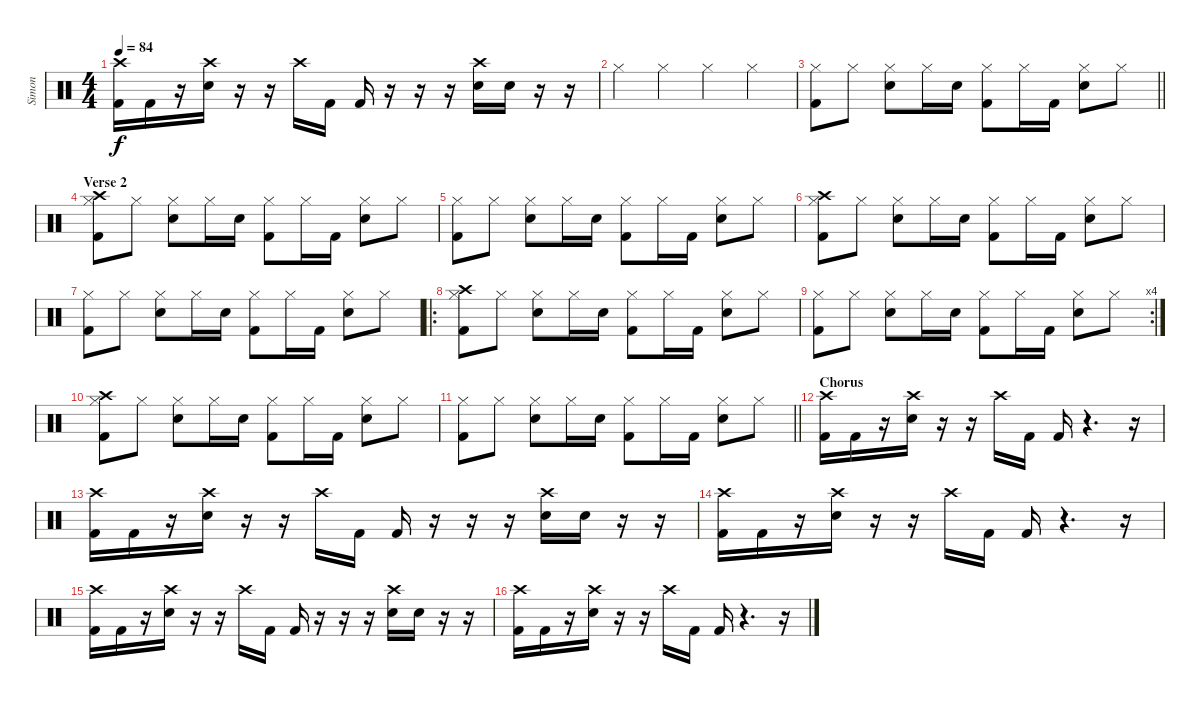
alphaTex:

\track ("Simon" "Simon") {instrument percussion}
\staff {score}
\articulation defaults
\ts (4 4)
\tempo 84
\clef neutral
\ks c
("Kick (hit) 2" "Crash high (hit)").16{dy f} "Kick (hit) 2".16 r.16 ("Snare (hit) 2" "Crash high (hit)").16 r.16 r.16 "Crash high (hit)".16 "Kick (hit) 2".16 "Kick (hit) 2".16 r.16 r.16 r.16 ("Snare (hit) 2" "Crash high (hit)").16 "Snare (hit) 2".16 r.16 r.16 |
"Hi-Hat (closed)".4 "Hi-Hat (closed)".4 "Hi-Hat (closed)".4 "Hi-Hat (closed)".4 |
\barLineRight lightlight
("Hi-Hat (closed)" "Kick (hit) 2").8 "Hi-Hat (closed)".8 ("Hi-Hat (closed)" "Snare (hit) 2").8 "Hi-Hat (closed)".16 "Snare (hit) 2".16 ("Hi-Hat (closed)" "Kick (hit) 2").8 "Hi-Hat (closed)".16 "Kick (hit) 2".16 ("Hi-Hat (closed)" "Snare (hit) 2").8 "Hi-Hat (closed)".8 |
\section ("" "Verse 2")
("Crash high (hit)" "Hi-Hat (closed)" "Kick (hit) 2").8 "Hi-Hat (closed)".8 ("Hi-Hat (closed)" "Snare (hit) 2").8 "Hi-Hat (closed)".16 "Snare (hit) 2".16 ("Hi-Hat (closed)" "Kick (hit) 2").8 "Hi-Hat (closed)".16 "Kick (hit) 2".16 ("Hi-Hat (closed)" "Snare (hit) 2").8 "Hi-Hat (closed)".8 |
("Hi-Hat (closed)" "Kick (hit) 2").8 "Hi-Hat (closed)".8 ("Hi-Hat (closed)" "Snare (hit) 2").8 "Hi-Hat (closed)".16 "Snare (hit) 2".16 ("Hi-Hat (closed)" "Kick (hit) 2").8 "Hi-Hat (closed)".16 "Kick (hit) 2".16 ("Hi-Hat (closed)" "Snare (hit) 2").8 "Hi-Hat (closed)".8 |
("Crash high (hit)" "Hi-Hat (closed)" "Kick (hit) 2").8 "Hi-Hat (closed)".8 ("Hi-Hat (closed)" "Snare (hit) 2").8 "Hi-Hat (closed)".16 "Snare (hit) 2".16 ("Hi-Hat (closed)" "Kick (hit) 2").8 "Hi-Hat (closed)".16 "Kick (hit) 2".16 ("Hi-Hat (closed)" "Snare (hit) 2").8 "Hi-Hat (closed)".8 |
("Hi-Hat (closed)" "Kick (hit) 2").8 "Hi-Hat (closed)".8 ("Hi-Hat (closed)" "Snare (hit) 2").8 "Hi-Hat (closed)".16 "Snare (hit) 2".16 ("Hi-Hat (closed)" "Kick (hit) 2").8 "Hi-Hat (closed)".16 "Kick (hit) 2".16 ("Hi-Hat (closed)" "Snare (hit) 2").8 "Hi-Hat (closed)".8 |
\ro
("Crash high (hit)" "Hi-Hat (closed)" "Kick (hit) 2").8 "Hi-Hat (closed)".8 ("Hi-Hat (closed)" "Snare (hit) 2").8 "Hi-Hat (closed)".16 "Snare (hit) 2".16 ("Hi-Hat (closed)" "Kick (hit) 2").8 "Hi-Hat (closed)".16 "Kick (hit) 2".16 ("Hi-Hat (closed)" "Snare (hit) 2").8 "Hi-Hat (closed)".8 |
\rc 4
("Hi-Hat (closed)" "Kick (hit) 2").8 "Hi-Hat (closed)".8 ("Hi-Hat (closed)" "Snare (hit) 2").8 "Hi-Hat (closed)".16 "Snare (hit) 2".16 ("Hi-Hat (closed)" "Kick (hit) 2").8 "Hi-Hat (closed)".16 "Kick (hit) 2".16 ("Hi-Hat (closed)" "Snare (hit) 2").8 "Hi-Hat (closed)".8 |
("Crash high (hit)" "Hi-Hat (closed)" "Kick (hit) 2").8 "Hi-Hat (closed)".8 ("Hi-Hat (closed)" "Snare (hit) 2").8 "Hi-Hat (closed)".16 "Snare (hit) 2".16 ("Hi-Hat (closed)" "Kick (hit) 2").8 "Hi-Hat (closed)".16 "Kick (hit) 2".16 ("Hi-Hat (closed)" "Snare (hit) 2").8 "Hi-Hat (closed)".8 |
\barLineRight lightlight
("Hi-Hat (closed)" "Kick (hit) 2").8 "Hi-Hat (closed)".8 ("Hi-Hat (closed)" "Snare (hit) 2").8 "Hi-Hat (closed)".16 "Snare (hit) 2".16 ("Hi-Hat (closed)" "Kick (hit) 2").8 "Hi-Hat (closed)".16 "Kick (hit) 2".16 ("Hi-Hat (closed)" "Snare (hit) 2").8 "Hi-Hat (closed)".8 |
\section ("" "Chorus")
("Kick (hit) 2" "Crash high (hit)").16 "Kick (hit) 2".16 r.16 ("Snare (hit) 2" "Crash high (hit)").16 r.16 r.16 "Crash high (hit)".16 "Kick (hit) 2".16 "Kick (hit) 2".16 r.4{d} r.16 |
("Kick (hit) 2" "Crash high (hit)").16 "Kick (hit) 2".16 r.16 ("Snare (hit) 2" "Crash high (hit)").16 r.16 r.16 "Crash high (hit)".16 "Kick (hit) 2".16 "Kick (hit) 2".16 r.16 r.16 r.16 ("Snare (hit) 2" "Crash high (hit)").16 "Snare (hit) 2".16 r.16 r.16 |
("Kick (hit) 2" "Crash high (hit)").16 "Kick (hit) 2".16 r.16 ("Snare (hit) 2" "Crash high (hit)").16 r.16 r.16 "Crash high (hit)".16 "Kick (hit) 2".16 "Kick (hit) 2".16 r.4{d} r.16 |
("Kick (hit) 2" "Crash high (hit)").16 "Kick (hit) 2".16 r.16 ("Snare (hit) 2" "Crash high (hit)").16 r.16 r.16 "Crash high (hit)".16 "Kick (hit) 2".16 "Kick (hit) 2".16 r.16 r.16 r.16 ("Snare (hit) 2" "Crash high (hit)").16 "Snare (hit) 2".16 r.16 r.16 |
("Kick (hit) 2" "Crash high (hit)").16 "Kick (hit) 2".16 r.16 ("Snare (hit) 2" "Crash high (hit)").16 r.16 r.16 "Crash high (hit)".16 "Kick (hit) 2".16 "Kick (hit) 2".16 r.4{d} r.16
